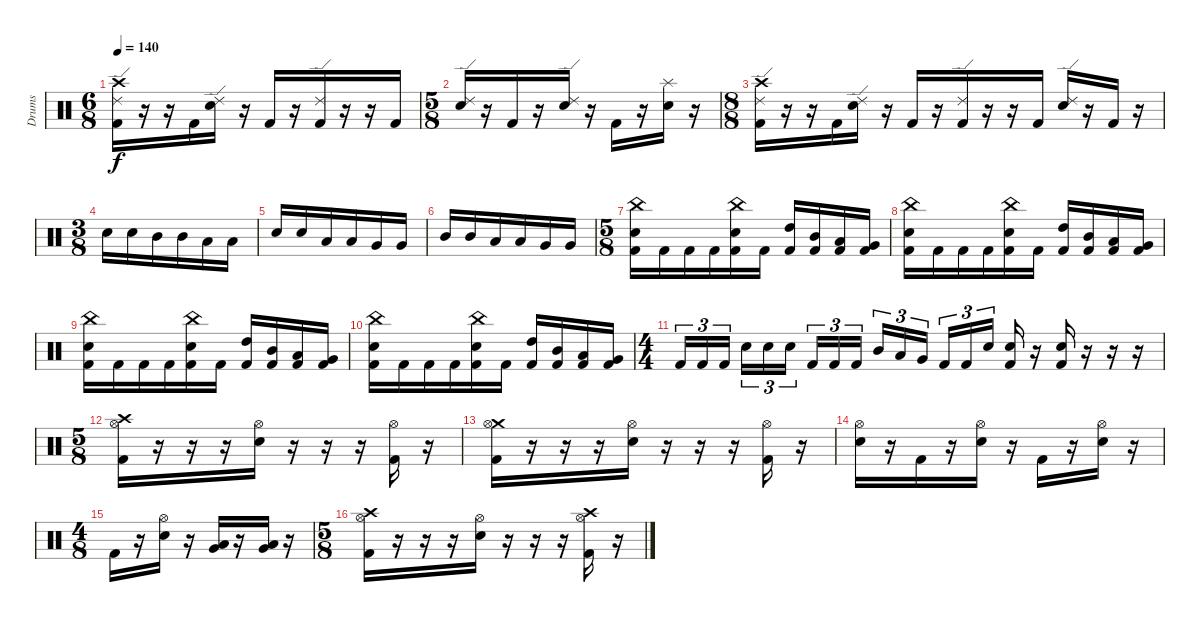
\track ("Drums" "Drums") {instrument percussion}
\staff {score}
\articulation defaults
\ts (6 8)
\tempo 140
\clef neutral
\ks c
("Crash high (hit)" "Ride (edge) 2" "Kick (hit) 2").16{dy f} r.16 r.16 "Kick (hit) 2".16 ("Ride (edge) 2" "Electric Snare (hit)").16 r.16 "Kick (hit) 2".16 r.16 ("Ride (edge) 2" "Kick (hit) 2").16 r.16 r.16 "Kick (hit) 2".16 |
\ts (5 8)
("Ride (edge) 2" "Electric Snare (hit)").16 r.16 "Kick (hit) 2".16 r.16 ("Ride (edge) 2" "Electric Snare (hit)").16 r.16 "Kick (hit) 2".16 r.16 ("Splash (hit)" "Electric Snare (hit)").16 r.16 |
\ts (8 8)
("Crash high (hit)" "Ride (edge) 2" "Kick (hit) 2").16 r.16 r.16 "Kick (hit) 2".16 ("Ride (edge) 2" "Electric Snare (hit)").16 r.16 "Kick (hit) 2".16 r.16 ("Ride (edge) 2" "Kick (hit) 2").16 r.16 r.16 "Kick (hit) 2".16 ("Ride (edge) 2" "Electric Snare (hit)").16 r.16 "Kick (hit) 2".16 r.16 |
\ts (3 8)
"Electric Snare (hit)".16 "Electric Snare (hit)".16 "Mid Tom (hit)".16 "Mid Tom (hit)".16 "Low Tom (hit)".16 "Low Tom (hit)".16 |
"Electric Snare (hit)".16 "Electric Snare (hit)".16 "Low Tom (hit)".16 "Low Tom (hit)".16 "Very Low Tom (hit)".16 "Very Low Tom (hit)".16 |
"Mid Tom (hit)".16 "Mid Tom (hit)".16 "Low Tom (hit)".16 "Low Tom (hit)".16 "Very Low Tom (hit)".16 "Very Low Tom (hit)".16 |
\ts (5 8)
("China (hit)" "Electric Snare (hit)" "Kick (hit) 2").16 "Kick (hit) 2".16 "Kick (hit) 2".16 "Kick (hit) 2".16 ("China (hit)" "Electric Snare (hit)" "Kick (hit) 2").16 "Kick (hit) 2".16 ("High Tom (hit)" "Kick (hit) 2").16 ("Mid Tom (hit)" "Kick (hit) 2").16 ("Low Tom (hit)" "Kick (hit) 2").16 ("Very Low Tom (hit)" "Kick (hit) 2").16 |
("China (hit)" "Electric Snare (hit)" "Kick (hit) 2").16 "Kick (hit) 2".16 "Kick (hit) 2".16 "Kick (hit) 2".16 ("China (hit)" "Electric Snare (hit)" "Kick (hit) 2").16 "Kick (hit) 2".16 ("High Tom (hit)" "Kick (hit) 2").16 ("Mid Tom (hit)" "Kick (hit) 2").16 ("Low Tom (hit)" "Kick (hit) 2").16 ("Very Low Tom (hit)" "Kick (hit) 2").16 |
("China (hit)" "Electric Snare (hit)" "Kick (hit) 2").16 "Kick (hit) 2".16 "Kick (hit) 2".16 "Kick (hit) 2".16 ("China (hit)" "Electric Snare (hit)" "Kick (hit) 2").16 "Kick (hit) 2".16 ("High Tom (hit)" "Kick (hit) 2").16 ("Mid Tom (hit)" "Kick (hit) 2").16 ("Low Tom (hit)" "Kick (hit) 2").16 ("Very Low Tom (hit)" "Kick (hit) 2").16 |
("China (hit)" "Electric Snare (hit)" "Kick (hit) 2").16 "Kick (hit) 2".16 "Kick (hit) 2".16 "Kick (hit) 2".16 ("China (hit)" "Electric Snare (hit)" "Kick (hit) 2").16 "Kick (hit) 2".16 ("High Tom (hit)" "Kick (hit) 2").16 ("Mid Tom (hit)" "Kick (hit) 2").16 ("Low Tom (hit)" "Kick (hit) 2").16 ("Very Low Tom (hit)" "Kick (hit) 2").16 |
\ts (4 4)
"Kick (hit) 2".16{tu (3 2)} "Kick (hit) 2".16{tu (3 2)} "Kick (hit) 2".16{tu (3 2)} "Electric Snare (hit)".16{tu (3 2)} "Electric Snare (hit)".16{tu (3 2)} "Electric Snare (hit)".16{tu (3 2)} "Kick (hit) 2".16{tu (3 2)} "Kick (hit) 2".16{tu (3 2)} "Kick (hit) 2".16{tu (3 2)} "Mid Tom (hit)".16{tu (3 2)} "Low Tom (hit)".16{tu (3 2)} "Very Low Tom (hit)".16{tu (3 2)} "Kick (hit) 2".16{tu (3 2)} "Kick (hit) 2".16{tu (3 2)} "Electric Snare (hit)".16{tu (3 2)} ("Kick (hit) 2" "Electric Snare (hit)").16 r.16 ("Kick (hit) 2" "Electric Snare (hit)").16 r.16 r.16 r.16 |
\ts (5 8)
("Crash high (hit)" "Hi-Hat (open)" "Kick (hit) 2").16 r.16 r.16 r.16 ("Hi-Hat (open)" "Electric Snare (hit)").16 r.16 r.16 r.16 ("Hi-Hat (open)" "Kick (hit) 2").16 r.16 |
("Crash medium (hit)" "Hi-Hat (open)" "Kick (hit) 2").16 r.16 r.16 r.16 ("Hi-Hat (open)" "Electric Snare (hit)").16 r.16 r.16 r.16 ("Hi-Hat (open)" "Kick (hit) 2").16 r.16 |
("Hi-Hat (open)" "Electric Snare (hit)").16 r.16 "Kick (hit) 2".16 r.16 ("Hi-Hat (open)" "Electric Snare (hit)").16 r.16 "Kick (hit) 2".16 r.16 ("Hi-Hat (open)" "Electric Snare (hit)").16 r.16 |
\ts (4 8)
"Kick (hit) 2".16 r.16 ("Hi-Hat (open)" "Electric Snare (hit)").16 r.16 ("Very Low Tom (hit)" "Low Tom (hit)").16 r.16 ("Very Low Tom (hit)" "Low Tom (hit)").16 r.16 |
\ts (5 8)
("Crash high (hit)" "Hi-Hat (open)" "Kick (hit) 2").16 r.16 r.16 r.16 ("Hi-Hat (open)" "Electric Snare (hit)").16 r.16 r.16 r.16 ("Crash high (hit)" "Hi-Hat (open)" "Kick (hit) 2").16 r.16
